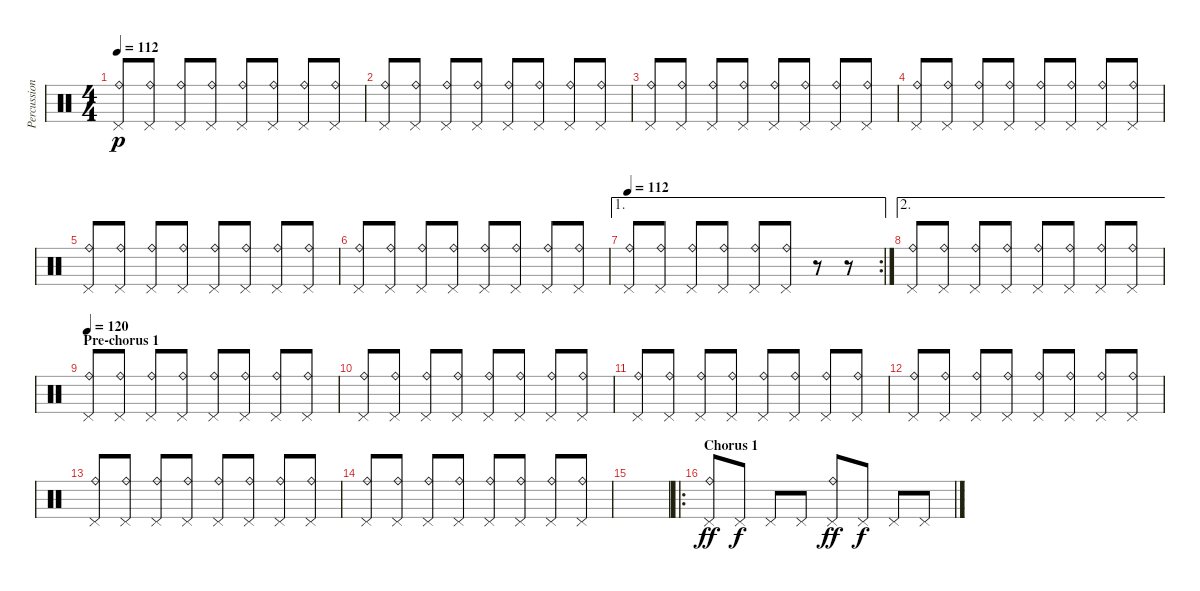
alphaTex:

\track ("Percussion 2" "Percussion") {instrument percussion}
\staff {score}
\articulation defaults
\ts (4 4)
\tempo 112
\clef neutral
\ks c
("Pedal Hi-Hat (hit)" "Ride (bell)").8{dy p} ("Pedal Hi-Hat (hit)" "Ride (bell)").8 ("Pedal Hi-Hat (hit)" "Ride (bell)").8 ("Pedal Hi-Hat (hit)" "Ride (bell)").8 ("Pedal Hi-Hat (hit)" "Ride (bell)").8 ("Pedal Hi-Hat (hit)" "Ride (bell)").8 ("Pedal Hi-Hat (hit)" "Ride (bell)").8 ("Pedal Hi-Hat (hit)" "Ride (bell)").8 |
("Pedal Hi-Hat (hit)" "Ride (bell)").8 ("Pedal Hi-Hat (hit)" "Ride (bell)").8 ("Pedal Hi-Hat (hit)" "Ride (bell)").8 ("Pedal Hi-Hat (hit)" "Ride (bell)").8 ("Pedal Hi-Hat (hit)" "Ride (bell)").8 ("Pedal Hi-Hat (hit)" "Ride (bell)").8 ("Pedal Hi-Hat (hit)" "Ride (bell)").8 ("Pedal Hi-Hat (hit)" "Ride (bell)").8 |
("Pedal Hi-Hat (hit)" "Ride (bell)").8 ("Pedal Hi-Hat (hit)" "Ride (bell)").8 ("Pedal Hi-Hat (hit)" "Ride (bell)").8 ("Pedal Hi-Hat (hit)" "Ride (bell)").8 ("Pedal Hi-Hat (hit)" "Ride (bell)").8 ("Pedal Hi-Hat (hit)" "Ride (bell)").8 ("Pedal Hi-Hat (hit)" "Ride (bell)").8 ("Pedal Hi-Hat (hit)" "Ride (bell)").8 |
("Pedal Hi-Hat (hit)" "Ride (bell)").8 ("Pedal Hi-Hat (hit)" "Ride (bell)").8 ("Pedal Hi-Hat (hit)" "Ride (bell)").8 ("Pedal Hi-Hat (hit)" "Ride (bell)").8 ("Pedal Hi-Hat (hit)" "Ride (bell)").8 ("Pedal Hi-Hat (hit)" "Ride (bell)").8 ("Pedal Hi-Hat (hit)" "Ride (bell)").8 ("Pedal Hi-Hat (hit)" "Ride (bell)").8 |
("Pedal Hi-Hat (hit)" "Ride (bell)").8 ("Pedal Hi-Hat (hit)" "Ride (bell)").8 ("Pedal Hi-Hat (hit)" "Ride (bell)").8 ("Pedal Hi-Hat (hit)" "Ride (bell)").8 ("Pedal Hi-Hat (hit)" "Ride (bell)").8 ("Pedal Hi-Hat (hit)" "Ride (bell)").8 ("Pedal Hi-Hat (hit)" "Ride (bell)").8 ("Pedal Hi-Hat (hit)" "Ride (bell)").8 |
("Pedal Hi-Hat (hit)" "Ride (bell)").8 ("Pedal Hi-Hat (hit)" "Ride (bell)").8 ("Pedal Hi-Hat (hit)" "Ride (bell)").8 ("Pedal Hi-Hat (hit)" "Ride (bell)").8 ("Pedal Hi-Hat (hit)" "Ride (bell)").8 ("Pedal Hi-Hat (hit)" "Ride (bell)").8 ("Pedal Hi-Hat (hit)" "Ride (bell)").8 ("Pedal Hi-Hat (hit)" "Ride (bell)").8 |
\ae 1
\rc 2
\tempo 112
("Pedal Hi-Hat (hit)" "Ride (bell)").8 ("Pedal Hi-Hat (hit)" "Ride (bell)").8 ("Pedal Hi-Hat (hit)" "Ride (bell)").8 ("Pedal Hi-Hat (hit)" "Ride (bell)").8 ("Pedal Hi-Hat (hit)" "Ride (bell)").8 ("Pedal Hi-Hat (hit)" "Ride (bell)").8 r.8 r.8 |
\ae 2
("Pedal Hi-Hat (hit)" "Ride (bell)").8 ("Pedal Hi-Hat (hit)" "Ride (bell)").8 ("Pedal Hi-Hat (hit)" "Ride (bell)").8 ("Pedal Hi-Hat (hit)" "Ride (bell)").8 ("Pedal Hi-Hat (hit)" "Ride (bell)").8 ("Pedal Hi-Hat (hit)" "Ride (bell)").8 ("Pedal Hi-Hat (hit)" "Ride (bell)").8 ("Pedal Hi-Hat (hit)" "Ride (bell)").8 |
\section ("" "Pre-chorus 1 ")
\tempo 120
("Pedal Hi-Hat (hit)" "Ride (bell)").8 ("Pedal Hi-Hat (hit)" "Ride (bell)").8 ("Pedal Hi-Hat (hit)" "Ride (bell)").8 ("Pedal Hi-Hat (hit)" "Ride (bell)").8 ("Pedal Hi-Hat (hit)" "Ride (bell)").8 ("Pedal Hi-Hat (hit)" "Ride (bell)").8 ("Pedal Hi-Hat (hit)" "Ride (bell)").8 ("Pedal Hi-Hat (hit)" "Ride (bell)").8 |
("Pedal Hi-Hat (hit)" "Ride (bell)").8 ("Pedal Hi-Hat (hit)" "Ride (bell)").8 ("Pedal Hi-Hat (hit)" "Ride (bell)").8 ("Pedal Hi-Hat (hit)" "Ride (bell)").8 ("Pedal Hi-Hat (hit)" "Ride (bell)").8 ("Pedal Hi-Hat (hit)" "Ride (bell)").8 ("Pedal Hi-Hat (hit)" "Ride (bell)").8 ("Pedal Hi-Hat (hit)" "Ride (bell)").8 |
("Pedal Hi-Hat (hit)" "Ride (bell)").8 ("Pedal Hi-Hat (hit)" "Ride (bell)").8 ("Pedal Hi-Hat (hit)" "Ride (bell)").8 ("Pedal Hi-Hat (hit)" "Ride (bell)").8 ("Pedal Hi-Hat (hit)" "Ride (bell)").8 ("Pedal Hi-Hat (hit)" "Ride (bell)").8 ("Pedal Hi-Hat (hit)" "Ride (bell)").8 ("Pedal Hi-Hat (hit)" "Ride (bell)").8 |
("Pedal Hi-Hat (hit)" "Ride (bell)").8 ("Pedal Hi-Hat (hit)" "Ride (bell)").8 ("Pedal Hi-Hat (hit)" "Ride (bell)").8 ("Pedal Hi-Hat (hit)" "Ride (bell)").8 ("Pedal Hi-Hat (hit)" "Ride (bell)").8 ("Pedal Hi-Hat (hit)" "Ride (bell)").8 ("Pedal Hi-Hat (hit)" "Ride (bell)").8 ("Pedal Hi-Hat (hit)" "Ride (bell)").8 |
("Pedal Hi-Hat (hit)" "Ride (bell)").8 ("Pedal Hi-Hat (hit)" "Ride (bell)").8 ("Pedal Hi-Hat (hit)" "Ride (bell)").8 ("Pedal Hi-Hat (hit)" "Ride (bell)").8 ("Pedal Hi-Hat (hit)" "Ride (bell)").8 ("Pedal Hi-Hat (hit)" "Ride (bell)").8 ("Pedal Hi-Hat (hit)" "Ride (bell)").8 ("Pedal Hi-Hat (hit)" "Ride (bell)").8 |
("Pedal Hi-Hat (hit)" "Ride (bell)").8 ("Pedal Hi-Hat (hit)" "Ride (bell)").8 ("Pedal Hi-Hat (hit)" "Ride (bell)").8 ("Pedal Hi-Hat (hit)" "Ride (bell)").8 ("Pedal Hi-Hat (hit)" "Ride (bell)").8 ("Pedal Hi-Hat (hit)" "Ride (bell)").8 ("Pedal Hi-Hat (hit)" "Ride (bell)").8 ("Pedal Hi-Hat (hit)" "Ride (bell)").8 |
|
\ro
\section ("" "Chorus 1")
("Pedal Hi-Hat (hit)" "Ride (bell)").8{dy ff} "Pedal Hi-Hat (hit)".8{dy f} "Pedal Hi-Hat (hit)".8 "Pedal Hi-Hat (hit)".8 ("Pedal Hi-Hat (hit)" "Ride (bell)").8{dy ff} "Pedal Hi-Hat (hit)".8{dy f} "Pedal Hi-Hat (hit)".8 "Pedal Hi-Hat (hit)".8
